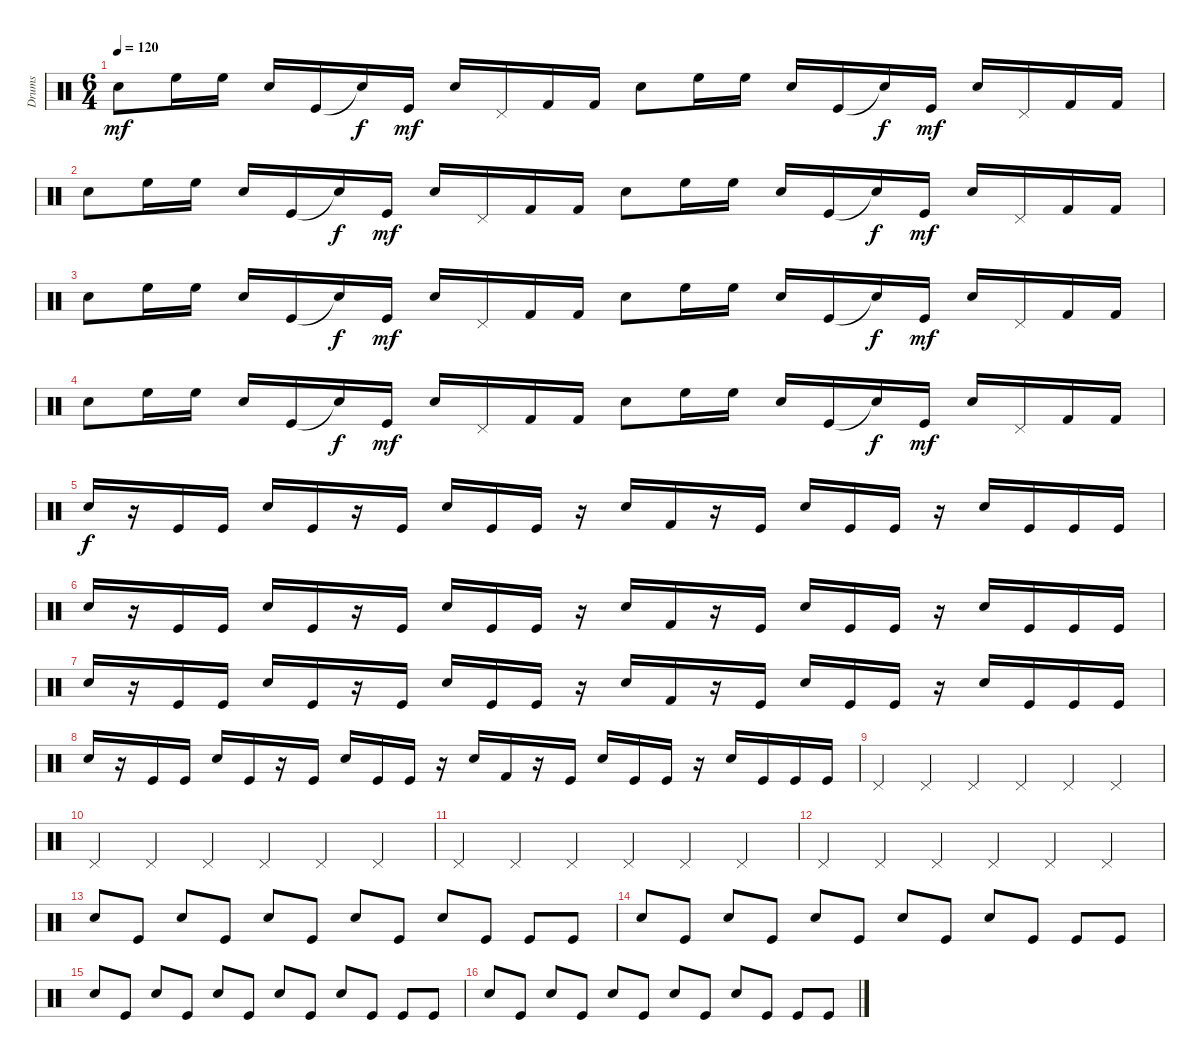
\track ("Drums" "Drums") {instrument percussion}
\staff {score}
\articulation defaults
\ts (6 4)
\tempo 120
\clef neutral
\ks c "Snare (hit) 2".8{dy mf} "High Floor Tom (hit)".16 "High Floor Tom (hit)".16 "Snare (hit) 2".16 "Kick (hit)".16 "Snare (hit)"{t}.16{dy f} "Kick (hit)".16{dy mf} "Snare (hit) 2".16 "Pedal Hi-Hat (hit)".16 "Kick (hit) 2".16 "Kick (hit) 2".16 "Snare (hit) 2".8 "High Floor Tom (hit)".16 "High Floor Tom (hit)".16 "Snare (hit) 2".16 "Kick (hit)".16 "Snare (hit)"{t}.16{dy f} "Kick (hit)".16{dy mf} "Snare (hit) 2".16 "Pedal Hi-Hat (hit)".16 "Kick (hit) 2".16 "Kick (hit) 2".16
|
"Snare (hit) 2".8 "High Floor Tom (hit)".16 "High Floor Tom (hit)".16 "Snare (hit) 2".16 "Kick (hit)".16 "Snare (hit)"{t}.16{dy f} "Kick (hit)".16{dy mf} "Snare (hit) 2".16 "Pedal Hi-Hat (hit)".16 "Kick (hit) 2".16 "Kick (hit) 2".16 "Snare (hit) 2".8 "High Floor Tom (hit)".16 "High Floor Tom (hit)".16 "Snare (hit) 2".16 "Kick (hit)".16 "Snare (hit)"{t}.16{dy f} "Kick (hit)".16{dy mf} "Snare (hit) 2".16 "Pedal Hi-Hat (hit)".16 "Kick (hit) 2".16 "Kick (hit) 2".16 |
"Snare (hit) 2".8 "High Floor Tom (hit)".16 "High Floor Tom (hit)".16 "Snare (hit) 2".16 "Kick (hit)".16 "Snare (hit)"{t}.16{dy f} "Kick (hit)".16{dy mf} "Snare (hit) 2".16 "Pedal Hi-Hat (hit)".16 "Kick (hit) 2".16 "Kick (hit) 2".16 "Snare (hit) 2".8 "High Floor Tom (hit)".16 "High Floor Tom (hit)".16 "Snare (hit) 2".16 "Kick (hit)".16 "Snare (hit)"{t}.16{dy f} "Kick (hit)".16{dy mf} "Snare (hit) 2".16 "Pedal Hi-Hat (hit)".16 "Kick (hit) 2".16 "Kick (hit) 2".16 |
"Snare (hit) 2".8 "High Floor Tom (hit)".16 "High Floor Tom (hit)".16 "Snare (hit) 2".16 "Kick (hit)".16 "Snare (hit)"{t}.16{dy f} "Kick (hit)".16{dy mf} "Snare (hit) 2".16 "Pedal Hi-Hat (hit)".16 "Kick (hit) 2".16 "Kick (hit) 2".16 "Snare (hit) 2".8 "High Floor Tom (hit)".16 "High Floor Tom (hit)".16 "Snare (hit) 2".16 "Kick (hit)".16 "Snare (hit)"{t}.16{dy f} "Kick (hit)".16{dy mf} "Snare (hit) 2".16 "Pedal Hi-Hat (hit)".16 "Kick (hit) 2".16 "Kick (hit) 2".16 |
"Snare (hit) 2".16{dy f} r.16 "Kick (hit)".16 "Kick (hit)".16 "Snare (hit) 2".16 "Kick (hit)".16 r.16 "Kick (hit)".16 "Snare (hit) 2".16 "Kick (hit)".16 "Kick (hit)".16 r.16 "Snare (hit) 2".16 "Kick (hit) 2".16 r.16 "Kick (hit)".16 "Snare (hit) 2".16 "Kick (hit)".16 "Kick (hit)".16 r.16 "Snare (hit) 2".16 "Kick (hit)".16 "Kick (hit)".16 "Kick (hit)".16 |
"Snare (hit) 2".16 r.16 "Kick (hit)".16 "Kick (hit)".16 "Snare (hit) 2".16 "Kick (hit)".16 r.16 "Kick (hit)".16 "Snare (hit) 2".16 "Kick (hit)".16 "Kick (hit)".16 r.16 "Snare (hit) 2".16 "Kick (hit) 2".16 r.16 "Kick (hit)".16 "Snare (hit) 2".16 "Kick (hit)".16 "Kick (hit)".16 r.16 "Snare (hit) 2".16 "Kick (hit)".16 "Kick (hit)".16 "Kick (hit)".16 |
"Snare (hit) 2".16 r.16 "Kick (hit)".16 "Kick (hit)".16 "Snare (hit) 2".16 "Kick (hit)".16 r.16 "Kick (hit)".16 "Snare (hit) 2".16 "Kick (hit)".16 "Kick (hit)".16 r.16 "Snare (hit) 2".16 "Kick (hit) 2".16 r.16 "Kick (hit)".16 "Snare (hit) 2".16 "Kick (hit)".16 "Kick (hit)".16 r.16 "Snare (hit) 2".16 "Kick (hit)".16 "Kick (hit)".16 "Kick (hit)".16 |
"Snare (hit) 2".16 r.16 "Kick (hit)".16 "Kick (hit)".16 "Snare (hit) 2".16 "Kick (hit)".16 r.16 "Kick (hit)".16 "Snare (hit) 2".16 "Kick (hit)".16 "Kick (hit)".16 r.16 "Snare (hit) 2".16 "Kick (hit) 2".16 r.16 "Kick (hit)".16 "Snare (hit) 2".16 "Kick (hit)".16 "Kick (hit)".16 r.16 "Snare (hit) 2".16 "Kick (hit)".16 "Kick (hit)".16 "Kick (hit)".16 |
"Pedal Hi-Hat (hit)".4 "Pedal Hi-Hat (hit)".4 "Pedal Hi-Hat (hit)".4 "Pedal Hi-Hat (hit)".4 "Pedal Hi-Hat (hit)".4 "Pedal Hi-Hat (hit)".4 |
"Pedal Hi-Hat (hit)".4 "Pedal Hi-Hat (hit)".4 "Pedal Hi-Hat (hit)".4 "Pedal Hi-Hat (hit)".4 "Pedal Hi-Hat (hit)".4 "Pedal Hi-Hat (hit)".4 |
"Pedal Hi-Hat (hit)".4 "Pedal Hi-Hat (hit)".4 "Pedal Hi-Hat (hit)".4 "Pedal Hi-Hat (hit)".4 "Pedal Hi-Hat (hit)".4 "Pedal Hi-Hat (hit)".4 |
"Pedal Hi-Hat (hit)".4 "Pedal Hi-Hat (hit)".4 "Pedal Hi-Hat (hit)".4 "Pedal Hi-Hat (hit)".4 "Pedal Hi-Hat (hit)".4 "Pedal Hi-Hat (hit)".4 |
"Snare (hit) 2".8 "Kick (hit)".8 "Snare (hit) 2".8 "Kick (hit)".8 "Snare (hit) 2".8 "Kick (hit)".8 "Snare (hit) 2".8 "Kick (hit)".8 "Snare (hit) 2".8 "Kick (hit)".8 "Kick (hit)".8 "Kick (hit)".8 |
"Snare (hit) 2".8 "Kick (hit)".8 "Snare (hit) 2".8 "Kick (hit)".8 "Snare (hit) 2".8 "Kick (hit)".8 "Snare (hit) 2".8 "Kick (hit)".8 "Snare (hit) 2".8 "Kick (hit)".8 "Kick (hit)".8 "Kick (hit)".8 |
"Snare (hit) 2".8 "Kick (hit)".8 "Snare (hit) 2".8 "Kick (hit)".8 "Snare (hit) 2".8 "Kick (hit)".8 "Snare (hit) 2".8 "Kick (hit)".8 "Snare (hit) 2".8 "Kick (hit)".8 "Kick (hit)".8 "Kick (hit)".8 |
"Snare (hit) 2".8 "Kick (hit)".8 "Snare (hit) 2".8 "Kick (hit)".8 "Snare (hit) 2".8 "Kick (hit)".8 "Snare (hit) 2".8 "Kick (hit)".8 "Snare (hit) 2".8 "Kick (hit)".8 "Kick (hit)".8 "Kick (hit)".8
